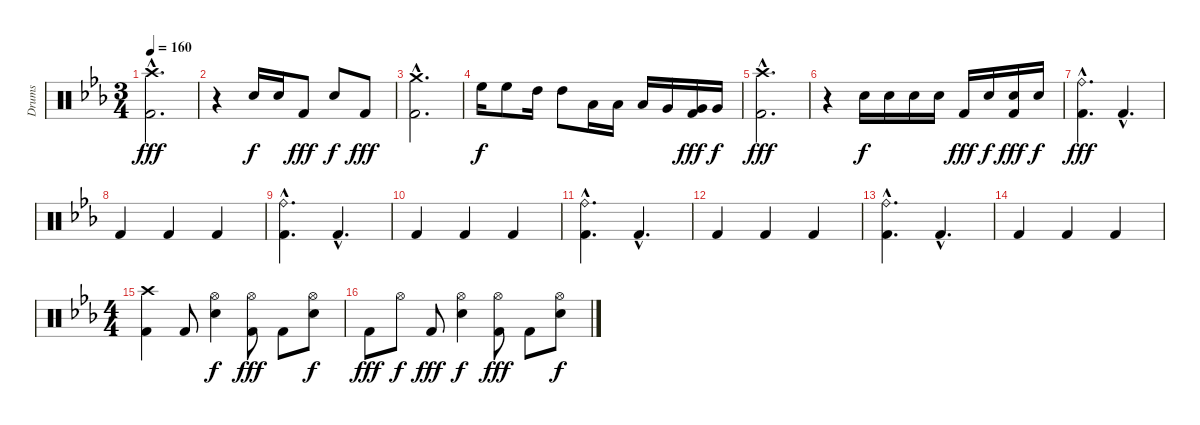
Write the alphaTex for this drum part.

\track ("Drums" "Drums") {instrument percussion}
\staff {score}
\articulation defaults
\ts (3 4)
\tempo 160
\clef neutral
\ks eb
("Crash high (hit)"{hac} "Kick (hit) 2"{hac}).2{d dy fff} |
r.4 "Electric Snare (hit)".16{dy f} "Electric Snare (hit)".16 "Kick (hit) 2".8{dy fff} "Electric Snare (hit)".8{dy f} "Kick (hit) 2".8{dy fff} |
("Crash medium (hit)"{hac} "Kick (hit) 2"{hac}).2{d} |
"High Floor Tom (hit)".16{dy f} "High Floor Tom (hit)".8 "High Tom (hit)".16 "High Tom (hit)".8 "Low Tom (hit)".16 "Low Tom (hit)".16 "Low Tom (hit)".16 "Very Low Tom (hit)".16 ("Very Low Tom (hit)" "Kick (hit) 2").16{dy fff} "Very Low Tom (hit)".16{dy f} |
("Crash high (hit)"{hac} "Kick (hit) 2"{hac}).2{d dy fff} |
r.4 "Electric Snare (hit)".16{dy f} "Electric Snare (hit)".16 "Electric Snare (hit)".16 "Electric Snare (hit)".16 "Kick (hit) 2".16{dy fff} "Electric Snare (hit)".16{dy f} ("Electric Snare (hit)" "Kick (hit) 2").16{dy fff} "Electric Snare (hit)".16{dy f} |
("Ride (bell)"{hac} "Kick (hit) 2"{hac}).4{d dy fff} "Kick (hit) 2"{hac}.4{d} |
"Kick (hit) 2".4 "Kick (hit) 2".4 "Kick (hit) 2".4 |
("Ride (bell)"{hac} "Kick (hit) 2"{hac}).4{d} "Kick (hit) 2"{hac}.4{d} |
"Kick (hit) 2".4 "Kick (hit) 2".4 "Kick (hit) 2".4 |
("Ride (bell)"{hac} "Kick (hit) 2"{hac}).4{d} "Kick (hit) 2"{hac}.4{d} |
"Kick (hit) 2".4 "Kick (hit) 2".4 "Kick (hit) 2".4 |
("Ride (bell)"{hac} "Kick (hit) 2"{hac}).4{d} "Kick (hit) 2"{hac}.4{d} |
"Kick (hit) 2".4 "Kick (hit) 2".4 "Kick (hit) 2".4 |
\ts (4 4)
("Crash high (hit)" "Kick (hit) 2").4 "Kick (hit) 2".8 ("Hi-Hat (open)" "Electric Snare (hit)").4{dy f} ("Hi-Hat (open)" "Kick (hit) 2").8{dy fff} "Kick (hit) 2".8 ("Hi-Hat (open)" "Electric Snare (hit)").8{dy f} |
"Kick (hit) 2".8{dy fff} "Hi-Hat (open)".8{dy f} "Kick (hit) 2".8{dy fff} ("Hi-Hat (open)" "Electric Snare (hit)").4{dy f} ("Hi-Hat (open)" "Kick (hit) 2").8{dy fff} "Kick (hit) 2".8 ("Hi-Hat (open)" "Electric Snare (hit)").8{dy f}
